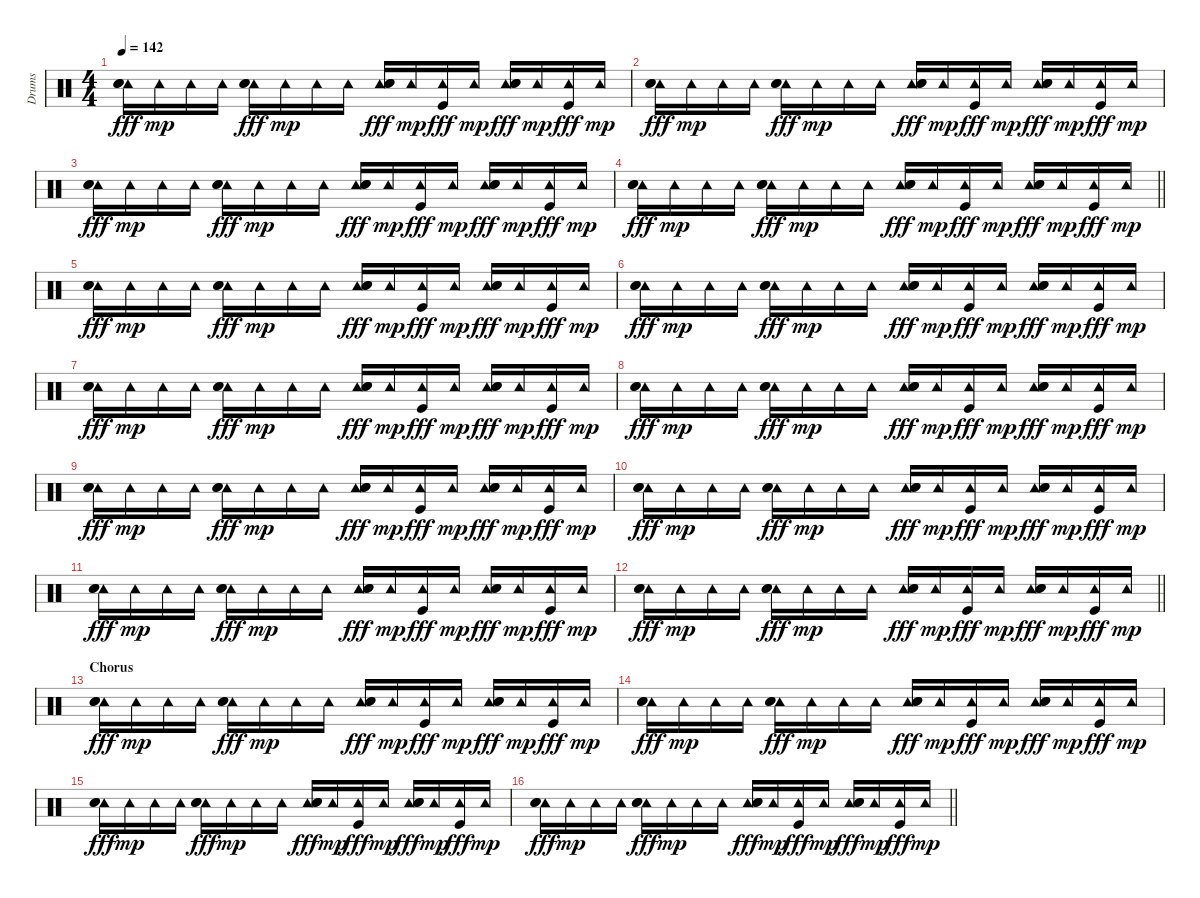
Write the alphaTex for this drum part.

\track ("Drums" "Drums") {instrument percussion}
\staff {score}
\articulation defaults
\ts (4 4)
\tempo 142
\clef neutral
\ks c
("Tambourine (hit)" "Hand Clap (hit)" "Electric Snare (hit)").16{dy fff} "Tambourine (hit)".16{dy mp} "Tambourine (hit)".16 "Tambourine (hit)".16 ("Tambourine (hit)" "Hand Clap (hit)" "Electric Snare (hit)").16{dy fff} "Tambourine (hit)".16{dy mp} "Tambourine (hit)".16 "Tambourine (hit)".16 ("Tambourine (hit)" "Hand Clap (hit)" "Electric Snare (hit)").16{dy fff} "Tambourine (hit)".16{dy mp} ("Tambourine (hit)" "Kick (hit)").16{dy fff} "Tambourine (hit)".16{dy mp} ("Tambourine (hit)" "Hand Clap (hit)" "Electric Snare (hit)").16{dy fff} "Tambourine (hit)".16{dy mp} ("Tambourine (hit)" "Kick (hit)").16{dy fff} "Tambourine (hit)".16{dy mp} |
("Tambourine (hit)" "Hand Clap (hit)" "Electric Snare (hit)").16{dy fff} "Tambourine (hit)".16{dy mp} "Tambourine (hit)".16 "Tambourine (hit)".16 ("Tambourine (hit)" "Hand Clap (hit)" "Electric Snare (hit)").16{dy fff} "Tambourine (hit)".16{dy mp} "Tambourine (hit)".16 "Tambourine (hit)".16 ("Tambourine (hit)" "Hand Clap (hit)" "Electric Snare (hit)").16{dy fff} "Tambourine (hit)".16{dy mp} ("Tambourine (hit)" "Kick (hit)").16{dy fff} "Tambourine (hit)".16{dy mp} ("Tambourine (hit)" "Hand Clap (hit)" "Electric Snare (hit)").16{dy fff} "Tambourine (hit)".16{dy mp} ("Tambourine (hit)" "Kick (hit)").16{dy fff} "Tambourine (hit)".16{dy mp} |
("Tambourine (hit)" "Hand Clap (hit)" "Electric Snare (hit)").16{dy fff} "Tambourine (hit)".16{dy mp} "Tambourine (hit)".16 "Tambourine (hit)".16 ("Tambourine (hit)" "Hand Clap (hit)" "Electric Snare (hit)").16{dy fff} "Tambourine (hit)".16{dy mp} "Tambourine (hit)".16 "Tambourine (hit)".16 ("Tambourine (hit)" "Hand Clap (hit)" "Electric Snare (hit)").16{dy fff} "Tambourine (hit)".16{dy mp} ("Tambourine (hit)" "Kick (hit)").16{dy fff} "Tambourine (hit)".16{dy mp} ("Tambourine (hit)" "Hand Clap (hit)" "Electric Snare (hit)").16{dy fff} "Tambourine (hit)".16{dy mp} ("Tambourine (hit)" "Kick (hit)").16{dy fff} "Tambourine (hit)".16{dy mp} |
\barLineRight lightlight
("Tambourine (hit)" "Hand Clap (hit)" "Electric Snare (hit)").16{dy fff} "Tambourine (hit)".16{dy mp} "Tambourine (hit)".16 "Tambourine (hit)".16 ("Tambourine (hit)" "Hand Clap (hit)" "Electric Snare (hit)").16{dy fff} "Tambourine (hit)".16{dy mp} "Tambourine (hit)".16 "Tambourine (hit)".16 ("Tambourine (hit)" "Hand Clap (hit)" "Electric Snare (hit)").16{dy fff} "Tambourine (hit)".16{dy mp} ("Tambourine (hit)" "Kick (hit)").16{dy fff} "Tambourine (hit)".16{dy mp} ("Tambourine (hit)" "Hand Clap (hit)" "Electric Snare (hit)").16{dy fff} "Tambourine (hit)".16{dy mp} ("Tambourine (hit)" "Kick (hit)").16{dy fff} "Tambourine (hit)".16{dy mp} |
("Tambourine (hit)" "Hand Clap (hit)" "Electric Snare (hit)").16{dy fff} "Tambourine (hit)".16{dy mp} "Tambourine (hit)".16 "Tambourine (hit)".16 ("Tambourine (hit)" "Hand Clap (hit)" "Electric Snare (hit)").16{dy fff} "Tambourine (hit)".16{dy mp} "Tambourine (hit)".16 "Tambourine (hit)".16 ("Tambourine (hit)" "Hand Clap (hit)" "Electric Snare (hit)").16{dy fff} "Tambourine (hit)".16{dy mp} ("Tambourine (hit)" "Kick (hit)").16{dy fff} "Tambourine (hit)".16{dy mp} ("Tambourine (hit)" "Hand Clap (hit)" "Electric Snare (hit)").16{dy fff} "Tambourine (hit)".16{dy mp} ("Tambourine (hit)" "Kick (hit)").16{dy fff} "Tambourine (hit)".16{dy mp} |
("Tambourine (hit)" "Hand Clap (hit)" "Electric Snare (hit)").16{dy fff} "Tambourine (hit)".16{dy mp} "Tambourine (hit)".16 "Tambourine (hit)".16 ("Tambourine (hit)" "Hand Clap (hit)" "Electric Snare (hit)").16{dy fff} "Tambourine (hit)".16{dy mp} "Tambourine (hit)".16 "Tambourine (hit)".16 ("Tambourine (hit)" "Hand Clap (hit)" "Electric Snare (hit)").16{dy fff} "Tambourine (hit)".16{dy mp} ("Tambourine (hit)" "Kick (hit)").16{dy fff} "Tambourine (hit)".16{dy mp} ("Tambourine (hit)" "Hand Clap (hit)" "Electric Snare (hit)").16{dy fff} "Tambourine (hit)".16{dy mp} ("Tambourine (hit)" "Kick (hit)").16{dy fff} "Tambourine (hit)".16{dy mp} |
("Tambourine (hit)" "Hand Clap (hit)" "Electric Snare (hit)").16{dy fff} "Tambourine (hit)".16{dy mp} "Tambourine (hit)".16 "Tambourine (hit)".16 ("Tambourine (hit)" "Hand Clap (hit)" "Electric Snare (hit)").16{dy fff} "Tambourine (hit)".16{dy mp} "Tambourine (hit)".16 "Tambourine (hit)".16 ("Tambourine (hit)" "Hand Clap (hit)" "Electric Snare (hit)").16{dy fff} "Tambourine (hit)".16{dy mp} ("Tambourine (hit)" "Kick (hit)").16{dy fff} "Tambourine (hit)".16{dy mp} ("Tambourine (hit)" "Hand Clap (hit)" "Electric Snare (hit)").16{dy fff} "Tambourine (hit)".16{dy mp} ("Tambourine (hit)" "Kick (hit)").16{dy fff} "Tambourine (hit)".16{dy mp} |
("Tambourine (hit)" "Hand Clap (hit)" "Electric Snare (hit)").16{dy fff} "Tambourine (hit)".16{dy mp} "Tambourine (hit)".16 "Tambourine (hit)".16 ("Tambourine (hit)" "Hand Clap (hit)" "Electric Snare (hit)").16{dy fff} "Tambourine (hit)".16{dy mp} "Tambourine (hit)".16 "Tambourine (hit)".16 ("Tambourine (hit)" "Hand Clap (hit)" "Electric Snare (hit)").16{dy fff} "Tambourine (hit)".16{dy mp} ("Tambourine (hit)" "Kick (hit)").16{dy fff} "Tambourine (hit)".16{dy mp} ("Tambourine (hit)" "Hand Clap (hit)" "Electric Snare (hit)").16{dy fff} "Tambourine (hit)".16{dy mp} ("Tambourine (hit)" "Kick (hit)").16{dy fff} "Tambourine (hit)".16{dy mp} |
("Tambourine (hit)" "Hand Clap (hit)" "Electric Snare (hit)").16{dy fff} "Tambourine (hit)".16{dy mp} "Tambourine (hit)".16 "Tambourine (hit)".16 ("Tambourine (hit)" "Hand Clap (hit)" "Electric Snare (hit)").16{dy fff} "Tambourine (hit)".16{dy mp} "Tambourine (hit)".16 "Tambourine (hit)".16 ("Tambourine (hit)" "Hand Clap (hit)" "Electric Snare (hit)").16{dy fff} "Tambourine (hit)".16{dy mp} ("Tambourine (hit)" "Kick (hit)").16{dy fff} "Tambourine (hit)".16{dy mp} ("Tambourine (hit)" "Hand Clap (hit)" "Electric Snare (hit)").16{dy fff} "Tambourine (hit)".16{dy mp} ("Tambourine (hit)" "Kick (hit)").16{dy fff} "Tambourine (hit)".16{dy mp} |
("Tambourine (hit)" "Hand Clap (hit)" "Electric Snare (hit)").16{dy fff} "Tambourine (hit)".16{dy mp} "Tambourine (hit)".16 "Tambourine (hit)".16 ("Tambourine (hit)" "Hand Clap (hit)" "Electric Snare (hit)").16{dy fff} "Tambourine (hit)".16{dy mp} "Tambourine (hit)".16 "Tambourine (hit)".16 ("Tambourine (hit)" "Hand Clap (hit)" "Electric Snare (hit)").16{dy fff} "Tambourine (hit)".16{dy mp} ("Tambourine (hit)" "Kick (hit)").16{dy fff} "Tambourine (hit)".16{dy mp} ("Tambourine (hit)" "Hand Clap (hit)" "Electric Snare (hit)").16{dy fff} "Tambourine (hit)".16{dy mp} ("Tambourine (hit)" "Kick (hit)").16{dy fff} "Tambourine (hit)".16{dy mp} |
("Tambourine (hit)" "Hand Clap (hit)" "Electric Snare (hit)").16{dy fff} "Tambourine (hit)".16{dy mp} "Tambourine (hit)".16 "Tambourine (hit)".16 ("Tambourine (hit)" "Hand Clap (hit)" "Electric Snare (hit)").16{dy fff} "Tambourine (hit)".16{dy mp} "Tambourine (hit)".16 "Tambourine (hit)".16 ("Tambourine (hit)" "Hand Clap (hit)" "Electric Snare (hit)").16{dy fff} "Tambourine (hit)".16{dy mp} ("Tambourine (hit)" "Kick (hit)").16{dy fff} "Tambourine (hit)".16{dy mp} ("Tambourine (hit)" "Hand Clap (hit)" "Electric Snare (hit)").16{dy fff} "Tambourine (hit)".16{dy mp} ("Tambourine (hit)" "Kick (hit)").16{dy fff} "Tambourine (hit)".16{dy mp} |
\barLineRight lightlight
("Tambourine (hit)" "Hand Clap (hit)" "Electric Snare (hit)").16{dy fff} "Tambourine (hit)".16{dy mp} "Tambourine (hit)".16 "Tambourine (hit)".16 ("Tambourine (hit)" "Hand Clap (hit)" "Electric Snare (hit)").16{dy fff} "Tambourine (hit)".16{dy mp} "Tambourine (hit)".16 "Tambourine (hit)".16 ("Tambourine (hit)" "Hand Clap (hit)" "Electric Snare (hit)").16{dy fff} "Tambourine (hit)".16{dy mp} ("Tambourine (hit)" "Kick (hit)").16{dy fff} "Tambourine (hit)".16{dy mp} ("Tambourine (hit)" "Hand Clap (hit)" "Electric Snare (hit)").16{dy fff} "Tambourine (hit)".16{dy mp} ("Tambourine (hit)" "Kick (hit)").16{dy fff} "Tambourine (hit)".16{dy mp} |
\section ("" "Chorus")
("Tambourine (hit)" "Hand Clap (hit)" "Electric Snare (hit)").16{dy fff} "Tambourine (hit)".16{dy mp} "Tambourine (hit)".16 "Tambourine (hit)".16 ("Tambourine (hit)" "Hand Clap (hit)" "Electric Snare (hit)").16{dy fff} "Tambourine (hit)".16{dy mp} "Tambourine (hit)".16 "Tambourine (hit)".16 ("Tambourine (hit)" "Hand Clap (hit)" "Electric Snare (hit)").16{dy fff} "Tambourine (hit)".16{dy mp} ("Tambourine (hit)" "Kick (hit)").16{dy fff} "Tambourine (hit)".16{dy mp} ("Tambourine (hit)" "Hand Clap (hit)" "Electric Snare (hit)").16{dy fff} "Tambourine (hit)".16{dy mp} ("Tambourine (hit)" "Kick (hit)").16{dy fff} "Tambourine (hit)".16{dy mp} |
("Tambourine (hit)" "Hand Clap (hit)" "Electric Snare (hit)").16{dy fff} "Tambourine (hit)".16{dy mp} "Tambourine (hit)".16 "Tambourine (hit)".16 ("Tambourine (hit)" "Hand Clap (hit)" "Electric Snare (hit)").16{dy fff} "Tambourine (hit)".16{dy mp} "Tambourine (hit)".16 "Tambourine (hit)".16 ("Tambourine (hit)" "Hand Clap (hit)" "Electric Snare (hit)").16{dy fff} "Tambourine (hit)".16{dy mp} ("Tambourine (hit)" "Kick (hit)").16{dy fff} "Tambourine (hit)".16{dy mp} ("Tambourine (hit)" "Hand Clap (hit)" "Electric Snare (hit)").16{dy fff} "Tambourine (hit)".16{dy mp} ("Tambourine (hit)" "Kick (hit)").16{dy fff} "Tambourine (hit)".16{dy mp} |
("Tambourine (hit)" "Hand Clap (hit)" "Electric Snare (hit)").16{dy fff} "Tambourine (hit)".16{dy mp} "Tambourine (hit)".16 "Tambourine (hit)".16 ("Tambourine (hit)" "Hand Clap (hit)" "Electric Snare (hit)").16{dy fff} "Tambourine (hit)".16{dy mp} "Tambourine (hit)".16 "Tambourine (hit)".16 ("Tambourine (hit)" "Hand Clap (hit)" "Electric Snare (hit)").16{dy fff} "Tambourine (hit)".16{dy mp} ("Tambourine (hit)" "Kick (hit)").16{dy fff} "Tambourine (hit)".16{dy mp} ("Tambourine (hit)" "Hand Clap (hit)" "Electric Snare (hit)").16{dy fff} "Tambourine (hit)".16{dy mp} ("Tambourine (hit)" "Kick (hit)").16{dy fff} "Tambourine (hit)".16{dy mp} |
\barLineRight lightlight
("Tambourine (hit)" "Hand Clap (hit)" "Electric Snare (hit)").16{dy fff} "Tambourine (hit)".16{dy mp} "Tambourine (hit)".16 "Tambourine (hit)".16 ("Tambourine (hit)" "Hand Clap (hit)" "Electric Snare (hit)").16{dy fff} "Tambourine (hit)".16{dy mp} "Tambourine (hit)".16 "Tambourine (hit)".16 ("Tambourine (hit)" "Hand Clap (hit)" "Electric Snare (hit)").16{dy fff} "Tambourine (hit)".16{dy mp} ("Tambourine (hit)" "Kick (hit)").16{dy fff} "Tambourine (hit)".16{dy mp} ("Tambourine (hit)" "Hand Clap (hit)" "Electric Snare (hit)").16{dy fff} "Tambourine (hit)".16{dy mp} ("Tambourine (hit)" "Kick (hit)").16{dy fff} "Tambourine (hit)".16{dy mp}
